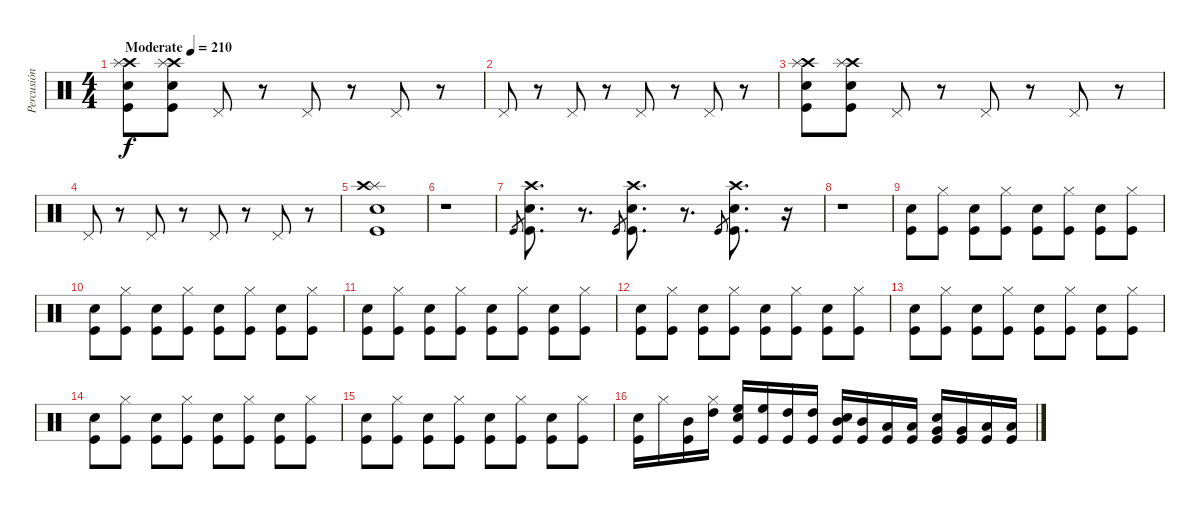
\track ("Percusión" "Percusión") {instrument percussion}
\staff {score}
\articulation defaults
\ts (4 4)
\tempo (210 "Moderate")
\clef neutral
\ks c
("Crash high (hit)" "Splash (hit)" "Snare (hit) 2" "Kick (hit)").8{dy f} ("Crash high (hit)" "Splash (hit)" "Snare (hit) 2" "Kick (hit)").8 "Pedal Hi-Hat (hit)".8 r.8 "Pedal Hi-Hat (hit)".8 r.8 "Pedal Hi-Hat (hit)".8 r.8 |
"Pedal Hi-Hat (hit)".8 r.8 "Pedal Hi-Hat (hit)".8 r.8 "Pedal Hi-Hat (hit)".8 r.8 "Pedal Hi-Hat (hit)".8 r.8 |
("Crash high (hit)" "Splash (hit)" "Snare (hit) 2" "Kick (hit)").8 ("Crash high (hit)" "Splash (hit)" "Snare (hit) 2" "Kick (hit)").8 "Pedal Hi-Hat (hit)".8 r.8 "Pedal Hi-Hat (hit)".8 r.8 "Pedal Hi-Hat (hit)".8 r.8 |
"Pedal Hi-Hat (hit)".8 r.8 "Pedal Hi-Hat (hit)".8 r.8 "Pedal Hi-Hat (hit)".8 r.8 "Pedal Hi-Hat (hit)".8 r.8 |
("Kick (hit)" "Snare (hit) 2" "Splash (hit)" "Crash high (hit)").1 |
r.1 |
"Kick (hit)".8{gr} ("Snare (hit) 2" "Crash high (hit)" "Kick (hit)").8{d} r.8{d} "Kick (hit)".8{gr} ("Snare (hit) 2" "Crash high (hit)" "Kick (hit)").8{d} r.8{d} "Kick (hit)".8{gr} ("Snare (hit) 2" "Crash high (hit)" "Kick (hit)").8{d} r.16 |
r.1 |
("Snare (hit) 2" "Kick (hit)").8 ("Hi-Hat (closed)" "Kick (hit)").8 ("Snare (hit) 2" "Kick (hit)").8 ("Hi-Hat (closed)" "Kick (hit)").8 ("Snare (hit) 2" "Kick (hit)").8 ("Hi-Hat (closed)" "Kick (hit)").8 ("Snare (hit) 2" "Kick (hit)").8 ("Hi-Hat (closed)" "Kick (hit)").8 |
("Snare (hit) 2" "Kick (hit)").8 ("Hi-Hat (closed)" "Kick (hit)").8 ("Snare (hit) 2" "Kick (hit)").8 ("Hi-Hat (closed)" "Kick (hit)").8 ("Snare (hit) 2" "Kick (hit)").8 ("Hi-Hat (closed)" "Kick (hit)").8 ("Snare (hit) 2" "Kick (hit)").8 ("Hi-Hat (closed)" "Kick (hit)").8 |
("Snare (hit) 2" "Kick (hit)").8 ("Hi-Hat (closed)" "Kick (hit)").8 ("Snare (hit) 2" "Kick (hit)").8 ("Hi-Hat (closed)" "Kick (hit)").8 ("Snare (hit) 2" "Kick (hit)").8 ("Hi-Hat (closed)" "Kick (hit)").8 ("Snare (hit) 2" "Kick (hit)").8 ("Hi-Hat (closed)" "Kick (hit)").8 |
("Snare (hit) 2" "Kick (hit)").8 ("Hi-Hat (closed)" "Kick (hit)").8 ("Snare (hit) 2" "Kick (hit)").8 ("Hi-Hat (closed)" "Kick (hit)").8 ("Snare (hit) 2" "Kick (hit)").8 ("Hi-Hat (closed)" "Kick (hit)").8 ("Snare (hit) 2" "Kick (hit)").8 ("Hi-Hat (closed)" "Kick (hit)").8 |
("Snare (hit) 2" "Kick (hit)").8 ("Hi-Hat (closed)" "Kick (hit)").8 ("Snare (hit) 2" "Kick (hit)").8 ("Hi-Hat (closed)" "Kick (hit)").8 ("Snare (hit) 2" "Kick (hit)").8 ("Hi-Hat (closed)" "Kick (hit)").8 ("Snare (hit) 2" "Kick (hit)").8 ("Hi-Hat (closed)" "Kick (hit)").8 |
("Snare (hit) 2" "Kick (hit)").8 ("Hi-Hat (closed)" "Kick (hit)").8 ("Snare (hit) 2" "Kick (hit)").8 ("Hi-Hat (closed)" "Kick (hit)").8 ("Snare (hit) 2" "Kick (hit)").8 ("Hi-Hat (closed)" "Kick (hit)").8 ("Snare (hit) 2" "Kick (hit)").8 ("Hi-Hat (closed)" "Kick (hit)").8 |
("Snare (hit) 2" "Kick (hit)").8 ("Hi-Hat (closed)" "Kick (hit)").8 ("Snare (hit) 2" "Kick (hit)").8 ("Hi-Hat (closed)" "Kick (hit)").8 ("Snare (hit) 2" "Kick (hit)").8 ("Hi-Hat (closed)" "Kick (hit)").8 ("Snare (hit) 2" "Kick (hit)").8 ("Hi-Hat (closed)" "Kick (hit)").8 |
("Snare (hit) 2" "Kick (hit)").16 "Hi-Hat (closed)".16 ("Mid Tom (hit)" "Kick (hit)").16 ("Hi-Hat (closed)" "High Tom (hit)").16 ("High Floor Tom (hit)" "Snare (hit) 2" "Kick (hit)").16 ("High Floor Tom (hit)" "Kick (hit)").16 ("High Tom (hit)" "Kick (hit)").16 ("High Tom (hit)" "Kick (hit)").16 ("Mid Tom (hit)" "Snare (hit) 2" "Kick (hit)").16 ("Mid Tom (hit)" "Kick (hit)").16 ("Low Tom (hit)" "Kick (hit)").16 ("Low Tom (hit)" "Kick (hit)").16 ("Very Low Tom (hit)" "Snare (hit) 2" "Kick (hit)").16 ("Very Low Tom (hit)" "Kick (hit)").16 ("Low Floor Tom (hit)" "Kick (hit)").16 ("Low Floor Tom (hit)" "Kick (hit)").16
